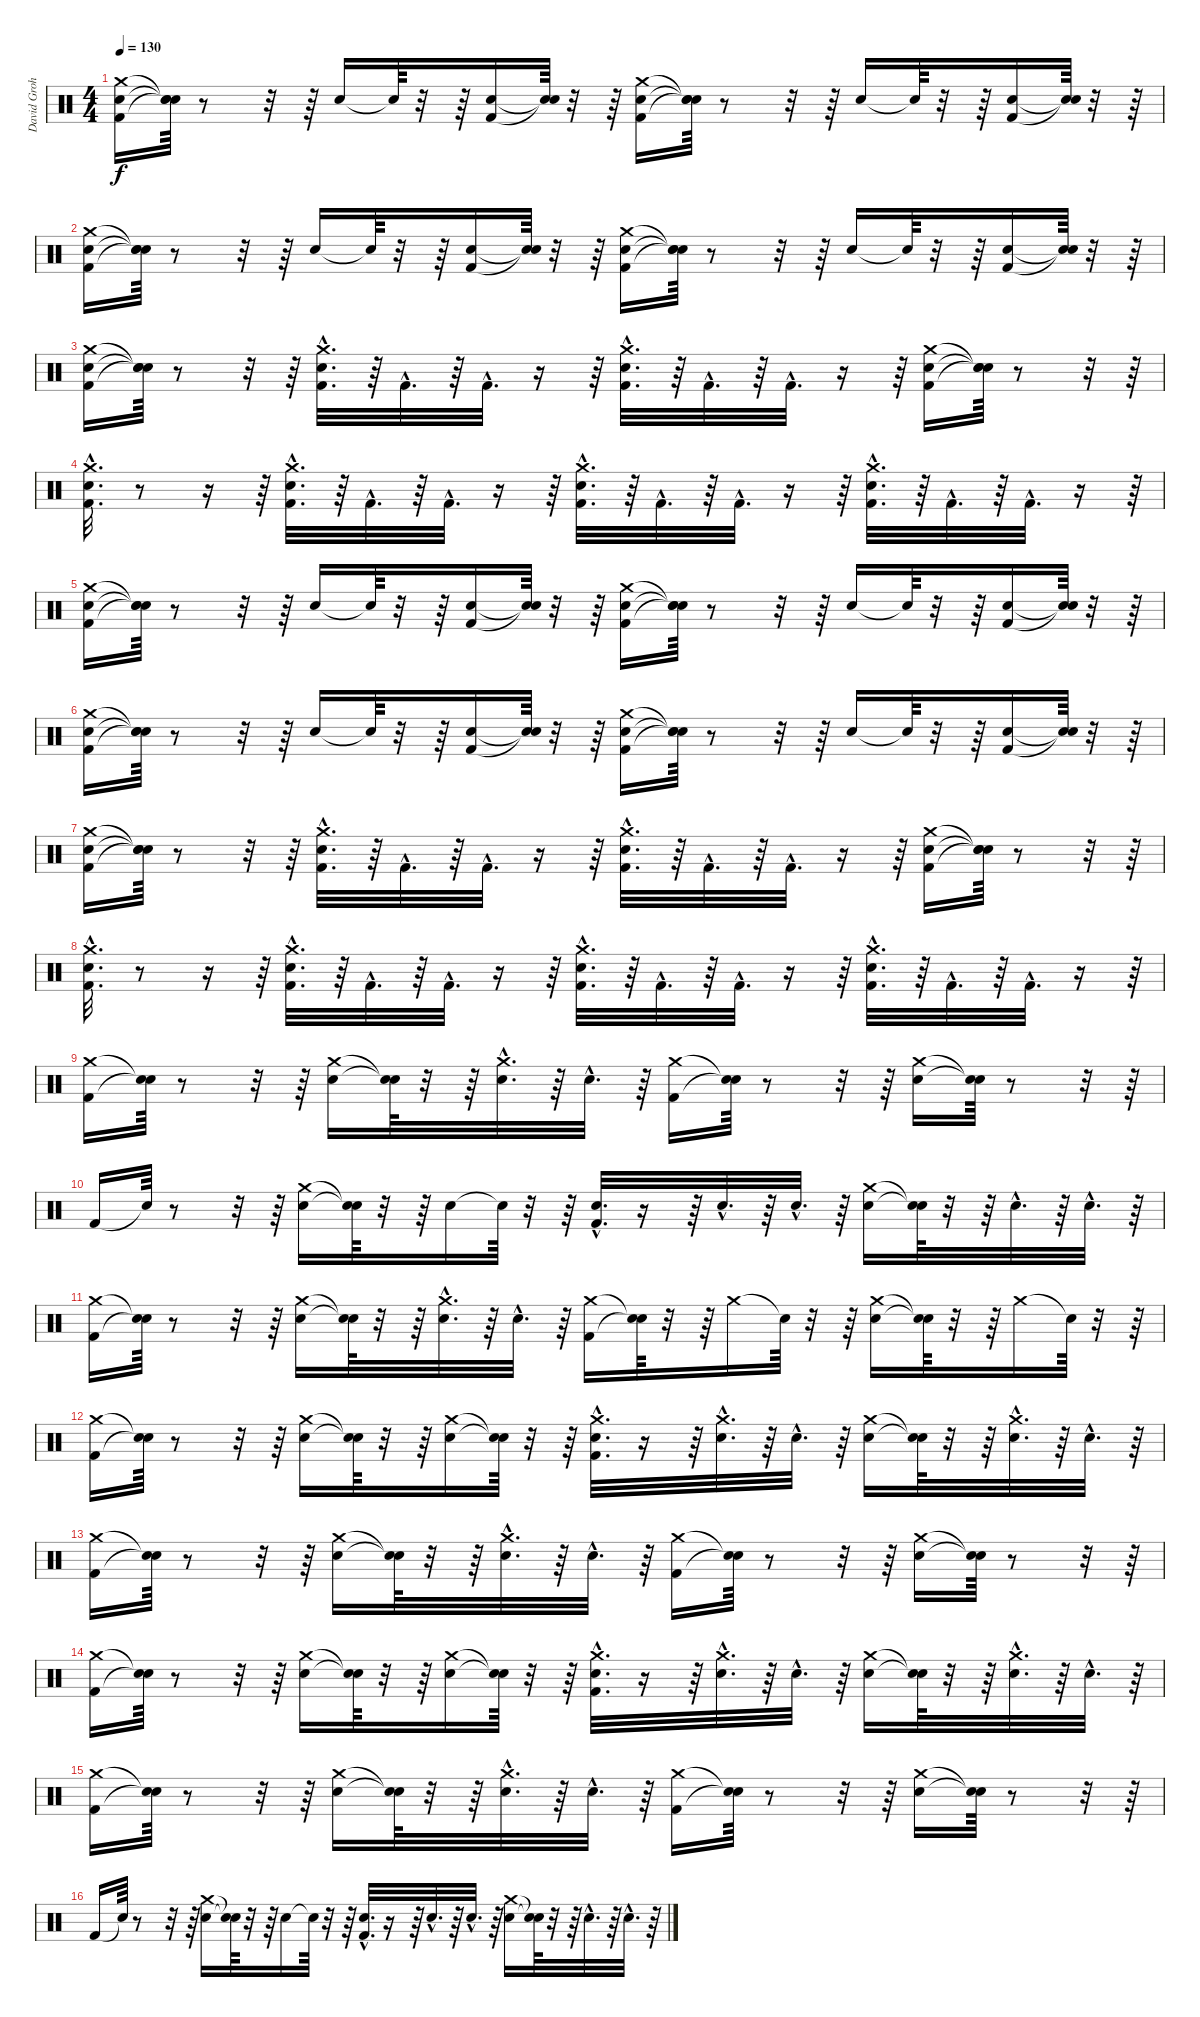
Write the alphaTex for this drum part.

\track ("David Grohl -Drums-" "David Groh") {instrument percussion}
\staff {score}
\articulation defaults
\ts (4 4)
\tempo 130
\clef neutral
\ks c
("Kick (hit) 2" "Snare (hit) 2" "Crash medium (hit)").16{dy f} ("Snare (hit)"{t} "Snare (hit)"{t} "Snare (hit)"{t}).64 r.8 r.32 r.64 "Snare (hit) 2".16 "Snare (hit)"{t}.64 r.32 r.64 ("Kick (hit) 2" "Snare (hit) 2").16 ("Snare (hit)"{t} "Snare (hit)"{t}).64 r.32 r.64 ("Snare (hit) 2" "Kick (hit) 2" "Crash medium (hit)").16 ("Snare (hit)"{t} "Snare (hit)"{t} "Snare (hit)"{t}).64 r.8 r.32 r.64 "Snare (hit) 2".16 "Snare (hit)"{t}.64 r.32 r.64 ("Snare (hit) 2" "Kick (hit) 2").16 ("Snare (hit)"{t} "Snare (hit)"{t}).64 r.32 r.64 |
("Kick (hit) 2" "Snare (hit) 2" "Crash medium (hit)").16 ("Snare (hit)"{t} "Snare (hit)"{t} "Snare (hit)"{t}).64 r.8 r.32 r.64 "Snare (hit) 2".16 "Snare (hit)"{t}.64 r.32 r.64 ("Kick (hit) 2" "Snare (hit) 2").16 ("Snare (hit)"{t} "Snare (hit)"{t}).64 r.32 r.64 ("Snare (hit) 2" "Kick (hit) 2" "Crash medium (hit)").16 ("Snare (hit)"{t} "Snare (hit)"{t} "Snare (hit)"{t}).64 r.8 r.32 r.64 "Snare (hit) 2".16 "Snare (hit)"{t}.64 r.32 r.64 ("Snare (hit) 2" "Kick (hit) 2").16 ("Snare (hit)"{t} "Snare (hit)"{t}).64 r.32 r.64 |
("Kick (hit) 2" "Snare (hit) 2" "Crash medium (hit)").16 ("Snare (hit)"{t} "Snare (hit)"{t} "Snare (hit)"{t}).64 r.8 r.32 r.64 ("Crash medium (hit)"{hac} "Snare (hit) 2"{hac} "Kick (hit) 2"{hac}).32{d} r.64 "Kick (hit) 2"{hac}.32{d} r.64 "Kick (hit) 2"{hac}.32{d} r.16 r.64 ("Kick (hit) 2"{hac} "Snare (hit) 2"{hac} "Crash medium (hit)"{hac}).32{d} r.64 "Kick (hit) 2"{hac}.32{d} r.64 "Kick (hit) 2"{hac}.32{d} r.16 r.64 ("Crash medium (hit)" "Snare (hit) 2" "Kick (hit) 2").16 ("Snare (hit)"{t} "Snare (hit)"{t} "Snare (hit)"{t}).64 r.8 r.32 r.64 |
("Snare (hit) 2"{hac} "Kick (hit) 2"{hac} "Crash medium (hit)"{hac}).32{d} r.8 r.16 r.64 ("Kick (hit) 2"{hac} "Snare (hit) 2"{hac} "Crash medium (hit)"{hac}).32{d} r.64 "Kick (hit) 2"{hac}.32{d} r.64 "Kick (hit) 2"{hac}.32{d} r.16 r.64 ("Snare (hit) 2"{hac} "Kick (hit) 2"{hac} "Crash medium (hit)"{hac}).32{d} r.64 "Kick (hit) 2"{hac}.32{d} r.64 "Kick (hit) 2"{hac}.32{d} r.16 r.64 ("Kick (hit) 2"{hac} "Snare (hit) 2"{hac} "Crash medium (hit)"{hac}).32{d} r.64 "Kick (hit) 2"{hac}.32{d} r.64 "Kick (hit) 2"{hac}.32{d} r.16 r.64 |
("Kick (hit) 2" "Snare (hit) 2" "Crash medium (hit)").16 ("Snare (hit)"{t} "Snare (hit)"{t} "Snare (hit)"{t}).64 r.8 r.32 r.64 "Snare (hit) 2".16 "Snare (hit)"{t}.64 r.32 r.64 ("Kick (hit) 2" "Snare (hit) 2").16 ("Snare (hit)"{t} "Snare (hit)"{t}).64 r.32 r.64 ("Snare (hit) 2" "Kick (hit) 2" "Crash medium (hit)").16 ("Snare (hit)"{t} "Snare (hit)"{t} "Snare (hit)"{t}).64 r.8 r.32 r.64 "Snare (hit) 2".16 "Snare (hit)"{t}.64 r.32 r.64 ("Snare (hit) 2" "Kick (hit) 2").16 ("Snare (hit)"{t} "Snare (hit)"{t}).64 r.32 r.64 |
("Kick (hit) 2" "Snare (hit) 2" "Crash medium (hit)").16 ("Snare (hit)"{t} "Snare (hit)"{t} "Snare (hit)"{t}).64 r.8 r.32 r.64 "Snare (hit) 2".16 "Snare (hit)"{t}.64 r.32 r.64 ("Kick (hit) 2" "Snare (hit) 2").16 ("Snare (hit)"{t} "Snare (hit)"{t}).64 r.32 r.64 ("Snare (hit) 2" "Kick (hit) 2" "Crash medium (hit)").16 ("Snare (hit)"{t} "Snare (hit)"{t} "Snare (hit)"{t}).64 r.8 r.32 r.64 "Snare (hit) 2".16 "Snare (hit)"{t}.64 r.32 r.64 ("Snare (hit) 2" "Kick (hit) 2").16 ("Snare (hit)"{t} "Snare (hit)"{t}).64 r.32 r.64 |
("Kick (hit) 2" "Snare (hit) 2" "Crash medium (hit)").16 ("Snare (hit)"{t} "Snare (hit)"{t} "Snare (hit)"{t}).64 r.8 r.32 r.64 ("Crash medium (hit)"{hac} "Snare (hit) 2"{hac} "Kick (hit) 2"{hac}).32{d} r.64 "Kick (hit) 2"{hac}.32{d} r.64 "Kick (hit) 2"{hac}.32{d} r.16 r.64 ("Kick (hit) 2"{hac} "Snare (hit) 2"{hac} "Crash medium (hit)"{hac}).32{d} r.64 "Kick (hit) 2"{hac}.32{d} r.64 "Kick (hit) 2"{hac}.32{d} r.16 r.64 ("Crash medium (hit)" "Snare (hit) 2" "Kick (hit) 2").16 ("Snare (hit)"{t} "Snare (hit)"{t} "Snare (hit)"{t}).64 r.8 r.32 r.64 |
("Snare (hit) 2"{hac} "Kick (hit) 2"{hac} "Crash medium (hit)"{hac}).32{d} r.8 r.16 r.64 ("Kick (hit) 2"{hac} "Snare (hit) 2"{hac} "Crash medium (hit)"{hac}).32{d} r.64 "Kick (hit) 2"{hac}.32{d} r.64 "Kick (hit) 2"{hac}.32{d} r.16 r.64 ("Snare (hit) 2"{hac} "Kick (hit) 2"{hac} "Crash medium (hit)"{hac}).32{d} r.64 "Kick (hit) 2"{hac}.32{d} r.64 "Kick (hit) 2"{hac}.32{d} r.16 r.64 ("Kick (hit) 2"{hac} "Snare (hit) 2"{hac} "Crash medium (hit)"{hac}).32{d} r.64 "Kick (hit) 2"{hac}.32{d} r.64 "Kick (hit) 2"{hac}.32{d} r.16 r.64 |
("Kick (hit) 2" "Crash medium (hit)").16 ("Snare (hit)"{t} "Snare (hit)"{t}).64 r.8 r.32 r.64 ("Snare (hit) 2" "Crash medium (hit)").16 ("Snare (hit)"{t} "Snare (hit)"{t}).64 r.32 r.64 ("Crash medium (hit)"{hac} "Snare (hit) 2"{hac}).32{d} r.64 "Snare (hit) 2"{hac}.32{d} r.64 ("Kick (hit) 2" "Crash medium (hit)").16 ("Snare (hit)"{t} "Snare (hit)"{t}).64 r.8 r.32 r.64 ("Snare (hit) 2" "Crash medium (hit)").16 ("Snare (hit)"{t} "Snare (hit)"{t}).64 r.8 r.32 r.64 |
"Kick (hit) 2".16 "Snare (hit)"{t}.64 r.8 r.32 r.64 ("Snare (hit) 2" "Crash medium (hit)").16 ("Snare (hit)"{t} "Snare (hit)"{t}).64 r.32 r.64 "Snare (hit) 2".16 "Snare (hit)"{t}.64 r.32 r.64 ("Kick (hit) 2"{hac} "Snare (hit) 2"{hac}).32{d} r.16 r.64 "Snare (hit) 2"{hac}.32{d} r.64 "Electric Snare (hit)"{hac}.32{d} r.64 ("Snare (hit) 2" "Crash medium (hit)").16 ("Snare (hit)"{t} "Snare (hit)"{t}).64 r.32 r.64 "Snare (hit) 2"{hac}.32{d} r.64 "Snare (hit) 2"{hac}.32{d} r.64 |
("Kick (hit) 2" "Crash medium (hit)").16 ("Snare (hit)"{t} "Snare (hit)"{t}).64 r.8 r.32 r.64 ("Snare (hit) 2" "Crash medium (hit)").16 ("Snare (hit)"{t} "Snare (hit)"{t}).64 r.32 r.64 ("Crash medium (hit)"{hac} "Snare (hit) 2"{hac}).32{d} r.64 "Snare (hit) 2"{hac}.32{d} r.64 ("Kick (hit) 2" "Crash medium (hit)").16 ("Snare (hit)"{t} "Snare (hit)"{t}).64 r.32 r.64 "Crash medium (hit)".16 "Snare (hit)"{t}.64 r.32 r.64 ("Snare (hit) 2" "Crash medium (hit)").16 ("Snare (hit)"{t} "Snare (hit)"{t}).64 r.32 r.64 "Crash medium (hit)".16 "Snare (hit)"{t}.64 r.32 r.64 |
("Kick (hit) 2" "Crash medium (hit)").16 ("Snare (hit)"{t} "Snare (hit)"{t}).64 r.8 r.32 r.64 ("Snare (hit) 2" "Crash medium (hit)").16 ("Snare (hit)"{t} "Snare (hit)"{t}).64 r.32 r.64 ("Snare (hit) 2" "Crash medium (hit)").16 ("Snare (hit)"{t} "Snare (hit)"{t}).64 r.32 r.64 ("Kick (hit) 2"{hac} "Snare (hit) 2"{hac} "Crash medium (hit)"{hac}).32{d} r.16 r.64 ("Snare (hit) 2"{hac} "Crash medium (hit)"{hac}).32{d} r.64 "Electric Snare (hit)"{hac}.32{d} r.64 ("Snare (hit) 2" "Crash medium (hit)").16 ("Snare (hit)"{t} "Snare (hit)"{t}).64 r.32 r.64 ("Snare (hit) 2"{hac} "Crash medium (hit)"{hac}).32{d} r.64 "Snare (hit) 2"{hac}.32{d} r.64 |
("Kick (hit) 2" "Crash medium (hit)").16 ("Snare (hit)"{t} "Snare (hit)"{t}).64 r.8 r.32 r.64 ("Snare (hit) 2" "Crash medium (hit)").16 ("Snare (hit)"{t} "Snare (hit)"{t}).64 r.32 r.64 ("Crash medium (hit)"{hac} "Snare (hit) 2"{hac}).32{d} r.64 "Snare (hit) 2"{hac}.32{d} r.64 ("Kick (hit) 2" "Crash medium (hit)").16 ("Snare (hit)"{t} "Snare (hit)"{t}).64 r.8 r.32 r.64 ("Snare (hit) 2" "Crash medium (hit)").16 ("Snare (hit)"{t} "Snare (hit)"{t}).64 r.8 r.32 r.64 |
("Kick (hit) 2" "Crash medium (hit)").16 ("Snare (hit)"{t} "Snare (hit)"{t}).64 r.8 r.32 r.64 ("Snare (hit) 2" "Crash medium (hit)").16 ("Snare (hit)"{t} "Snare (hit)"{t}).64 r.32 r.64 ("Snare (hit) 2" "Crash medium (hit)").16 ("Snare (hit)"{t} "Snare (hit)"{t}).64 r.32 r.64 ("Kick (hit) 2"{hac} "Snare (hit) 2"{hac} "Crash medium (hit)"{hac}).32{d} r.16 r.64 ("Snare (hit) 2"{hac} "Crash medium (hit)"{hac}).32{d} r.64 "Electric Snare (hit)"{hac}.32{d} r.64 ("Snare (hit) 2" "Crash medium (hit)").16 ("Snare (hit)"{t} "Snare (hit)"{t}).64 r.32 r.64 ("Snare (hit) 2"{hac} "Crash medium (hit)"{hac}).32{d} r.64 "Snare (hit) 2"{hac}.32{d} r.64 |
("Kick (hit) 2" "Crash medium (hit)").16 ("Snare (hit)"{t} "Snare (hit)"{t}).64 r.8 r.32 r.64 ("Snare (hit) 2" "Crash medium (hit)").16 ("Snare (hit)"{t} "Snare (hit)"{t}).64 r.32 r.64 ("Crash medium (hit)"{hac} "Snare (hit) 2"{hac}).32{d} r.64 "Snare (hit) 2"{hac}.32{d} r.64 ("Kick (hit) 2" "Crash medium (hit)").16 ("Snare (hit)"{t} "Snare (hit)"{t}).64 r.8 r.32 r.64 ("Snare (hit) 2" "Crash medium (hit)").16 ("Snare (hit)"{t} "Snare (hit)"{t}).64 r.8 r.32 r.64 |
"Kick (hit) 2".16 "Snare (hit)"{t}.64 r.8 r.32 r.64 ("Snare (hit) 2" "Crash medium (hit)").16 ("Snare (hit)"{t} "Snare (hit)"{t}).64 r.32 r.64 "Snare (hit) 2".16 "Snare (hit)"{t}.64 r.32 r.64 ("Kick (hit) 2"{hac} "Snare (hit) 2"{hac}).32{d} r.16 r.64 "Snare (hit) 2"{hac}.32{d} r.64 "Electric Snare (hit)"{hac}.32{d} r.64 ("Snare (hit) 2" "Crash medium (hit)").16 ("Snare (hit)"{t} "Snare (hit)"{t}).64 r.32 r.64 "Snare (hit) 2"{hac}.32{d} r.64 "Snare (hit) 2"{hac}.32{d} r.64
